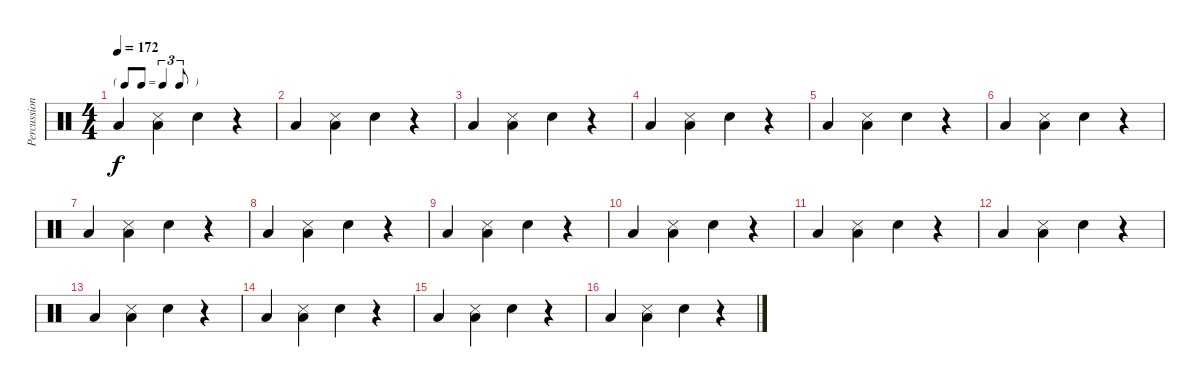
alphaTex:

\track ("Percussions" "Percussion") {instrument percussion}
\staff {score}
\articulation defaults
\ts (4 4)
\tf triplet8th
\tempo 172
\clef neutral
\ks c "Low Tom (hit)".4{dy f}
("Low Floor Tom (hit)" "Snare (side stick) 3").4 "Snare (hit) 2".4 r.4 |
"Low Floor Tom (hit)".4 ("Low Floor Tom (hit)" "Snare (side stick) 3").4 "Snare (hit) 2".4 r.4 |
"Low Tom (hit)".4 ("Low Floor Tom (hit)" "Snare (side stick) 3").4 "Snare (hit) 2".4 r.4 |
"Low Floor Tom (hit)".4 ("Low Floor Tom (hit)" "Snare (side stick) 3").4 "Snare (hit) 2".4 r.4 |
"Low Tom (hit)".4 ("Low Floor Tom (hit)" "Snare (side stick) 3").4 "Snare (hit) 2".4 r.4 |
"Low Floor Tom (hit)".4 ("Low Floor Tom (hit)" "Snare (side stick) 3").4 "Snare (hit) 2".4 r.4 |
"Low Tom (hit)".4 ("Low Floor Tom (hit)" "Snare (side stick) 3").4 "Snare (hit) 2".4 r.4 |
"Low Floor Tom (hit)".4 ("Low Floor Tom (hit)" "Snare (side stick) 3").4 "Snare (hit) 2".4 r.4 |
"Low Tom (hit)".4 ("Low Floor Tom (hit)" "Snare (side stick) 3").4 "Snare (hit) 2".4 r.4 |
"Low Floor Tom (hit)".4 ("Low Floor Tom (hit)" "Snare (side stick) 3").4 "Snare (hit) 2".4 r.4 |
"Low Tom (hit)".4 ("Low Floor Tom (hit)" "Snare (side stick) 3").4 "Snare (hit) 2".4 r.4 |
"Low Floor Tom (hit)".4 ("Low Floor Tom (hit)" "Snare (side stick) 3").4 "Snare (hit) 2".4 r.4 |
"Low Tom (hit)".4 ("Low Floor Tom (hit)" "Snare (side stick) 3").4 "Snare (hit) 2".4 r.4 |
"Low Floor Tom (hit)".4 ("Low Floor Tom (hit)" "Snare (side stick) 3").4 "Snare (hit) 2".4 r.4 |
"Low Tom (hit)".4 ("Low Floor Tom (hit)" "Snare (side stick) 3").4 "Snare (hit) 2".4 r.4 |
"Low Floor Tom (hit)".4 ("Low Floor Tom (hit)" "Snare (side stick) 3").4 "Snare (hit) 2".4 r.4
